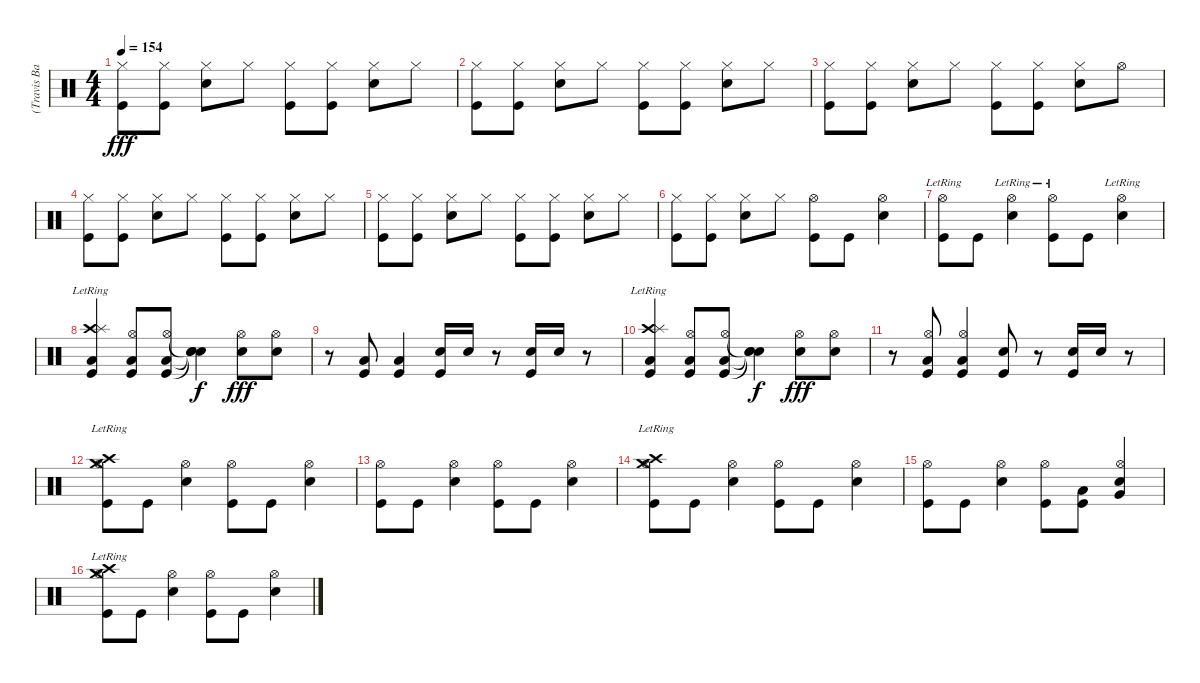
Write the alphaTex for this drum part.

\track ("(Travis Barker) Drums" "(Travis Ba") {instrument percussion}
\staff {score}
\articulation defaults
\ts (4 4)
\tempo 154
\clef neutral
\ks c
("Hi-Hat (closed)" "Kick (hit)").8{dy fff} ("Hi-Hat (closed)" "Kick (hit)").8 ("Hi-Hat (closed)" "Snare (hit) 2").8 "Hi-Hat (closed)".8 ("Hi-Hat (closed)" "Kick (hit)").8 ("Hi-Hat (closed)" "Kick (hit)").8 ("Hi-Hat (closed)" "Snare (hit) 2").8 "Hi-Hat (closed)".8 |
("Hi-Hat (closed)" "Kick (hit)").8 ("Hi-Hat (closed)" "Kick (hit)").8 ("Hi-Hat (closed)" "Snare (hit) 2").8 "Hi-Hat (closed)".8 ("Hi-Hat (closed)" "Kick (hit)").8 ("Hi-Hat (closed)" "Kick (hit)").8 ("Hi-Hat (closed)" "Snare (hit) 2").8 "Hi-Hat (closed)".8 |
("Hi-Hat (closed)" "Kick (hit)").8 ("Hi-Hat (closed)" "Kick (hit)").8 ("Hi-Hat (closed)" "Snare (hit) 2").8 "Hi-Hat (closed)".8 ("Hi-Hat (closed)" "Kick (hit)").8 ("Hi-Hat (closed)" "Kick (hit)").8 ("Hi-Hat (closed)" "Snare (hit) 2").8 "Hi-Hat (open)".8 |
("Hi-Hat (closed)" "Kick (hit)").8 ("Hi-Hat (closed)" "Kick (hit)").8 ("Hi-Hat (closed)" "Snare (hit) 2").8 "Hi-Hat (closed)".8 ("Hi-Hat (closed)" "Kick (hit)").8 ("Hi-Hat (closed)" "Kick (hit)").8 ("Hi-Hat (closed)" "Snare (hit) 2").8 "Hi-Hat (closed)".8 |
("Hi-Hat (closed)" "Kick (hit)").8 ("Hi-Hat (closed)" "Kick (hit)").8 ("Hi-Hat (closed)" "Snare (hit) 2").8 "Hi-Hat (closed)".8 ("Hi-Hat (closed)" "Kick (hit)").8 ("Hi-Hat (closed)" "Kick (hit)").8 ("Hi-Hat (closed)" "Snare (hit) 2").8 "Hi-Hat (closed)".8 |
("Hi-Hat (closed)" "Kick (hit)").8 ("Hi-Hat (closed)" "Kick (hit)").8 ("Hi-Hat (closed)" "Snare (hit) 2").8 "Hi-Hat (closed)".8 ("Hi-Hat (open)" "Kick (hit)").8 "Kick (hit)".8 ("Hi-Hat (open)" "Snare (hit) 2").4 |
("Hi-Hat (open)"{lr} "Kick (hit)").8 "Kick (hit)".8 ("Hi-Hat (open)"{lr} "Snare (hit) 2").4 ("Hi-Hat (open)"{lr} "Kick (hit)").8 "Kick (hit)".8 ("Hi-Hat (open)"{lr} "Snare (hit) 2").4 |
("Crash high (hit)"{lr} "Splash (hit)"{lr} "Low Tom (hit)"{lr} "Kick (hit)"{lr}).4 ("Hi-Hat (open)" "Low Tom (hit)" "Kick (hit)").8 ("Hi-Hat (open)" "Low Tom (hit)" "Kick (hit)").8 ("Snare (hit)"{t} "Snare (hit)"{t} "Snare (hit)"{t}).4{dy f} ("Hi-Hat (open)" "Snare (hit) 2").8{dy fff} ("Hi-Hat (open)" "Snare (hit) 2").8 |
r.8 ("Low Tom (hit)" "Kick (hit)").8 ("Low Tom (hit)" "Kick (hit)").4 ("Snare (hit) 2" "Kick (hit)").16 "Snare (hit) 2".16 r.8 ("Snare (hit) 2" "Kick (hit)").16 "Snare (hit) 2".16 r.8 |
("Crash high (hit)"{lr} "Splash (hit)"{lr} "Low Tom (hit)"{lr} "Kick (hit)"{lr}).4 ("Hi-Hat (open)" "Low Tom (hit)" "Kick (hit)").8 ("Hi-Hat (open)" "Low Tom (hit)" "Kick (hit)").8 ("Snare (hit)"{t} "Snare (hit)"{t} "Snare (hit)"{t}).4{dy f} ("Hi-Hat (open)" "Snare (hit) 2").8{dy fff} ("Hi-Hat (open)" "Snare (hit) 2").8 |
r.8 ("Hi-Hat (open)" "Low Tom (hit)" "Kick (hit)").8 ("Hi-Hat (open)" "Low Tom (hit)" "Kick (hit)").4 ("Snare (hit) 2" "Kick (hit)").8 r.8 ("Snare (hit) 2" "Kick (hit)").16 "Snare (hit) 2".16 r.8 |
("Crash high (hit)"{lr} "Hi-Hat (open)" "Crash medium (hit)"{lr} "Kick (hit)").8 "Kick (hit)".8 ("Hi-Hat (open)" "Snare (hit) 2").4 ("Hi-Hat (open)" "Kick (hit)").8 "Kick (hit)".8 ("Hi-Hat (open)" "Snare (hit) 2").4 |
("Hi-Hat (open)" "Kick (hit)").8 "Kick (hit)".8 ("Hi-Hat (open)" "Snare (hit) 2").4 ("Hi-Hat (open)" "Kick (hit)").8 "Kick (hit)".8 ("Hi-Hat (open)" "Snare (hit) 2").4 |
("Crash high (hit)"{lr} "Hi-Hat (open)" "Crash medium (hit)"{lr} "Kick (hit)").8 "Kick (hit)".8 ("Hi-Hat (open)" "Snare (hit) 2").4 ("Hi-Hat (open)" "Kick (hit)").8 "Kick (hit)".8 ("Hi-Hat (open)" "Snare (hit) 2").4 |
("Hi-Hat (open)" "Kick (hit)").8 "Kick (hit)".8 ("Hi-Hat (open)" "Snare (hit) 2").4 ("Hi-Hat (open)" "Kick (hit)").8 ("Low Tom (hit)" "Kick (hit)").8 ("Hi-Hat (open)" "Very Low Tom (hit)" "Snare (hit) 2").4 |
("Crash high (hit)"{lr} "Hi-Hat (open)" "Crash medium (hit)"{lr} "Kick (hit)").8 "Kick (hit)".8 ("Hi-Hat (open)" "Snare (hit) 2").4 ("Hi-Hat (open)" "Kick (hit)").8 "Kick (hit)".8 ("Hi-Hat (open)" "Snare (hit) 2").4
